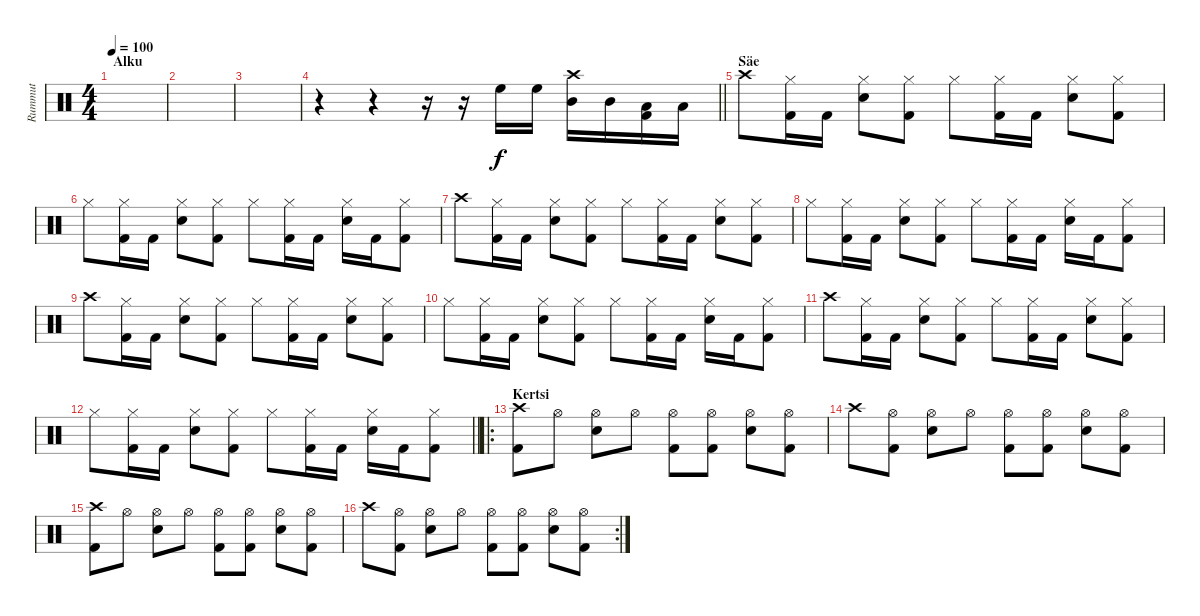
\track ("Rummut" "Rummut") {instrument percussion}
\staff {score}
\articulation defaults
\ts (4 4)
\section ("" "Alku")
\tempo 100
\clef neutral
\ks c
|
|
|
\barLineRight lightlight
r.4 r.4 r.16 r.16 "High Floor Tom (hit)".16 "High Floor Tom (hit)".16 ("Crash high (hit)" "Mid Tom (hit)").16 "Mid Tom (hit)".16 ("Low Tom (hit)" "Kick (hit) 2").16 "Low Tom (hit)".16 |
\section ("" "Säe")
"Crash high (hit)".8 ("Hi-Hat (closed)" "Kick (hit) 2").16 "Kick (hit) 2".16 ("Hi-Hat (closed)" "Snare (hit) 2").8 ("Hi-Hat (closed)" "Kick (hit) 2").8 "Hi-Hat (closed)".8 ("Hi-Hat (closed)" "Kick (hit) 2").16 "Kick (hit) 2".16 ("Hi-Hat (closed)" "Snare (hit) 2").8 ("Hi-Hat (closed)" "Kick (hit) 2").8 |
"Hi-Hat (closed)".8 ("Hi-Hat (closed)" "Kick (hit) 2").16 "Kick (hit) 2".16 ("Hi-Hat (closed)" "Snare (hit) 2").8 ("Hi-Hat (closed)" "Kick (hit) 2").8 "Hi-Hat (closed)".8 ("Hi-Hat (closed)" "Kick (hit) 2").16 "Kick (hit) 2".16 ("Hi-Hat (closed)" "Snare (hit) 2").16 "Kick (hit) 2".16 ("Hi-Hat (closed)" "Kick (hit) 2").8 |
"Crash high (hit)".8 ("Hi-Hat (closed)" "Kick (hit) 2").16 "Kick (hit) 2".16 ("Hi-Hat (closed)" "Snare (hit) 2").8 ("Hi-Hat (closed)" "Kick (hit) 2").8 "Hi-Hat (closed)".8 ("Hi-Hat (closed)" "Kick (hit) 2").16 "Kick (hit) 2".16 ("Hi-Hat (closed)" "Snare (hit) 2").8 ("Hi-Hat (closed)" "Kick (hit) 2").8 |
"Hi-Hat (closed)".8 ("Hi-Hat (closed)" "Kick (hit) 2").16 "Kick (hit) 2".16 ("Hi-Hat (closed)" "Snare (hit) 2").8 ("Hi-Hat (closed)" "Kick (hit) 2").8 "Hi-Hat (closed)".8 ("Hi-Hat (closed)" "Kick (hit) 2").16 "Kick (hit) 2".16 ("Hi-Hat (closed)" "Snare (hit) 2").16 "Kick (hit) 2".16 ("Hi-Hat (closed)" "Kick (hit) 2").8 |
"Crash high (hit)".8 ("Hi-Hat (closed)" "Kick (hit) 2").16 "Kick (hit) 2".16 ("Hi-Hat (closed)" "Snare (hit) 2").8 ("Hi-Hat (closed)" "Kick (hit) 2").8 "Hi-Hat (closed)".8 ("Hi-Hat (closed)" "Kick (hit) 2").16 "Kick (hit) 2".16 ("Hi-Hat (closed)" "Snare (hit) 2").8 ("Hi-Hat (closed)" "Kick (hit) 2").8 |
"Hi-Hat (closed)".8 ("Hi-Hat (closed)" "Kick (hit) 2").16 "Kick (hit) 2".16 ("Hi-Hat (closed)" "Snare (hit) 2").8 ("Hi-Hat (closed)" "Kick (hit) 2").8 "Hi-Hat (closed)".8 ("Hi-Hat (closed)" "Kick (hit) 2").16 "Kick (hit) 2".16 ("Hi-Hat (closed)" "Snare (hit) 2").16 "Kick (hit) 2".16 ("Hi-Hat (closed)" "Kick (hit) 2").8 |
"Crash high (hit)".8 ("Hi-Hat (closed)" "Kick (hit) 2").16 "Kick (hit) 2".16 ("Hi-Hat (closed)" "Snare (hit) 2").8 ("Hi-Hat (closed)" "Kick (hit) 2").8 "Hi-Hat (closed)".8 ("Hi-Hat (closed)" "Kick (hit) 2").16 "Kick (hit) 2".16 ("Hi-Hat (closed)" "Snare (hit) 2").8 ("Hi-Hat (closed)" "Kick (hit) 2").8 |
\barLineRight lightlight "Hi-Hat (closed)".8
("Hi-Hat (closed)" "Kick (hit) 2").16 "Kick (hit) 2".16 ("Hi-Hat (closed)" "Snare (hit) 2").8 ("Hi-Hat (closed)" "Kick (hit) 2").8 "Hi-Hat (closed)".8 ("Hi-Hat (closed)" "Kick (hit) 2").16 "Kick (hit) 2".16 ("Hi-Hat (closed)" "Snare (hit) 2").16 "Kick (hit) 2".16 ("Hi-Hat (closed)" "Kick (hit) 2").8 |
\ro
\section ("" "Kertsi")
("Kick (hit) 2" "Crash high (hit)").8 "Hi-Hat (open)".8 ("Snare (hit) 2" "Hi-Hat (open)").8 "Hi-Hat (open)".8 ("Kick (hit) 2" "Hi-Hat (open)").8 ("Kick (hit) 2" "Hi-Hat (open)").8 ("Snare (hit) 2" "Hi-Hat (open)").8 ("Kick (hit) 2" "Hi-Hat (open)").8 |
"Crash high (hit)".8 ("Hi-Hat (open)" "Kick (hit) 2").8 ("Hi-Hat (open)" "Snare (hit) 2").8 "Hi-Hat (open)".8 ("Hi-Hat (open)" "Kick (hit) 2").8 ("Hi-Hat (open)" "Kick (hit) 2").8 ("Hi-Hat (open)" "Snare (hit) 2").8 ("Hi-Hat (open)" "Kick (hit) 2").8 |
("Kick (hit) 2" "Crash high (hit)").8 "Hi-Hat (open)".8 ("Snare (hit) 2" "Hi-Hat (open)").8 "Hi-Hat (open)".8 ("Kick (hit) 2" "Hi-Hat (open)").8 ("Kick (hit) 2" "Hi-Hat (open)").8 ("Snare (hit) 2" "Hi-Hat (open)").8 ("Kick (hit) 2" "Hi-Hat (open)").8 |
\rc 2 "Crash high (hit)".8
("Hi-Hat (open)" "Kick (hit) 2").8 ("Hi-Hat (open)" "Snare (hit) 2").8 "Hi-Hat (open)".8 ("Hi-Hat (open)" "Kick (hit) 2").8 ("Hi-Hat (open)" "Kick (hit) 2").8 ("Hi-Hat (open)" "Snare (hit) 2").8 ("Hi-Hat (open)" "Kick (hit) 2").8
